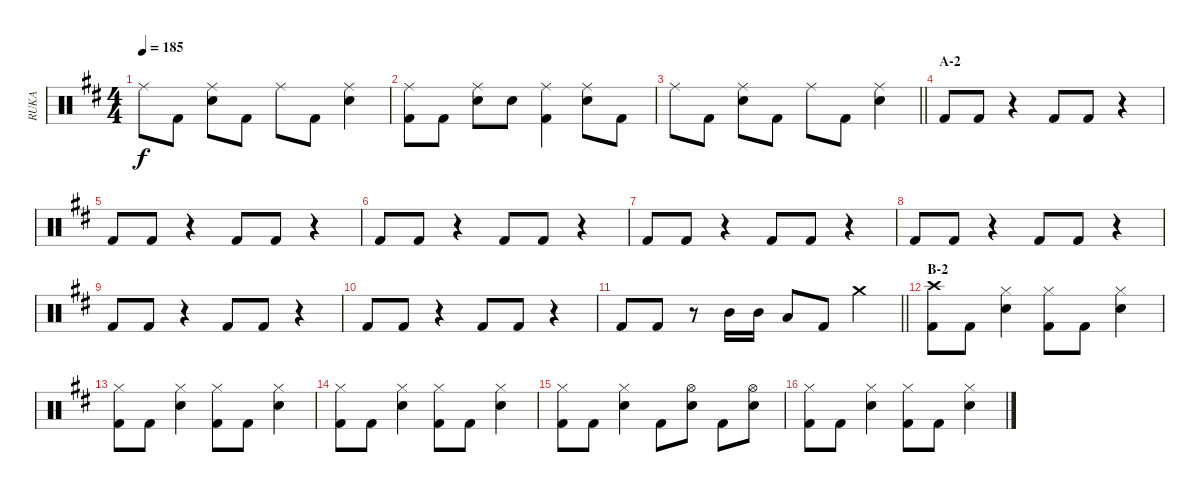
\track ("RUKA" "RUKA") {instrument percussion}
\staff {score}
\articulation defaults
\ts (4 4)
\tempo 185
\clef neutral
\ks d "Ride (middle)".8{dy f} "Kick (hit) 2".8
("Ride (middle)" "Snare (hit) 2").8 "Kick (hit) 2".8 "Ride (middle)".8 "Kick (hit) 2".8 ("Ride (middle)" "Snare (hit) 2").4 |
("Ride (middle)" "Kick (hit) 2").8 "Kick (hit) 2".8 ("Ride (middle)" "Snare (hit) 2").8 "Snare (hit) 2".8 ("Ride (middle)" "Kick (hit) 2").4 ("Ride (middle)" "Snare (hit) 2").8 "Kick (hit) 2".8 |
\barLineRight lightlight "Ride (middle)".8 "Kick (hit) 2".8
("Ride (middle)" "Snare (hit) 2").8 "Kick (hit) 2".8 "Ride (middle)".8 "Kick (hit) 2".8 ("Ride (middle)" "Snare (hit) 2").4 |
\section ("" "A-2")
"Kick (hit) 2".8 "Kick (hit) 2".8 r.4 "Kick (hit) 2".8 "Kick (hit) 2".8 r.4 |
"Kick (hit) 2".8 "Kick (hit) 2".8 r.4 "Kick (hit) 2".8 "Kick (hit) 2".8 r.4 |
"Kick (hit) 2".8 "Kick (hit) 2".8 r.4 "Kick (hit) 2".8 "Kick (hit) 2".8 r.4 |
"Kick (hit) 2".8 "Kick (hit) 2".8 r.4 "Kick (hit) 2".8 "Kick (hit) 2".8 r.4 |
"Kick (hit) 2".8 "Kick (hit) 2".8 r.4 "Kick (hit) 2".8 "Kick (hit) 2".8 r.4 |
"Kick (hit) 2".8 "Kick (hit) 2".8 r.4 "Kick (hit) 2".8 "Kick (hit) 2".8 r.4 |
"Kick (hit) 2".8 "Kick (hit) 2".8 r.4 "Kick (hit) 2".8 "Kick (hit) 2".8 r.4 |
\barLineRight lightlight "Kick (hit) 2".8 "Kick (hit) 2".8
r.8 "Mid Tom (hit)".16 "Mid Tom (hit)".16 "Low Tom (hit)".8 "Kick (hit) 2".8 "Crash medium (hit)".4 |
\section ("" "B-2")
("Crash high (hit)" "Kick (hit) 2").8 "Kick (hit) 2".8 ("Hi-Hat (closed)" "Snare (hit) 2").4 ("Hi-Hat (closed)" "Kick (hit) 2").8 "Kick (hit) 2".8 ("Hi-Hat (closed)" "Snare (hit) 2").4 |
("Hi-Hat (closed)" "Kick (hit) 2").8 "Kick (hit) 2".8 ("Hi-Hat (closed)" "Snare (hit) 2").4 ("Hi-Hat (closed)" "Kick (hit) 2").8 "Kick (hit) 2".8 ("Hi-Hat (closed)" "Snare (hit) 2").4 |
("Hi-Hat (closed)" "Kick (hit) 2").8 "Kick (hit) 2".8 ("Hi-Hat (closed)" "Snare (hit) 2").4 ("Hi-Hat (closed)" "Kick (hit) 2").8 "Kick (hit) 2".8 ("Hi-Hat (closed)" "Snare (hit) 2").4 |
("Hi-Hat (closed)" "Kick (hit) 2").8 "Kick (hit) 2".8 ("Hi-Hat (closed)" "Snare (hit) 2").4 "Kick (hit) 2".8 ("Hi-Hat (open)" "Snare (hit) 2").8 "Kick (hit) 2".8 ("Hi-Hat (open)" "Snare (hit) 2").8 |
("Hi-Hat (closed)" "Kick (hit) 2").8 "Kick (hit) 2".8 ("Hi-Hat (closed)" "Snare (hit) 2").4 ("Hi-Hat (closed)" "Kick (hit) 2").8 "Kick (hit) 2".8 ("Hi-Hat (closed)" "Snare (hit) 2").4
